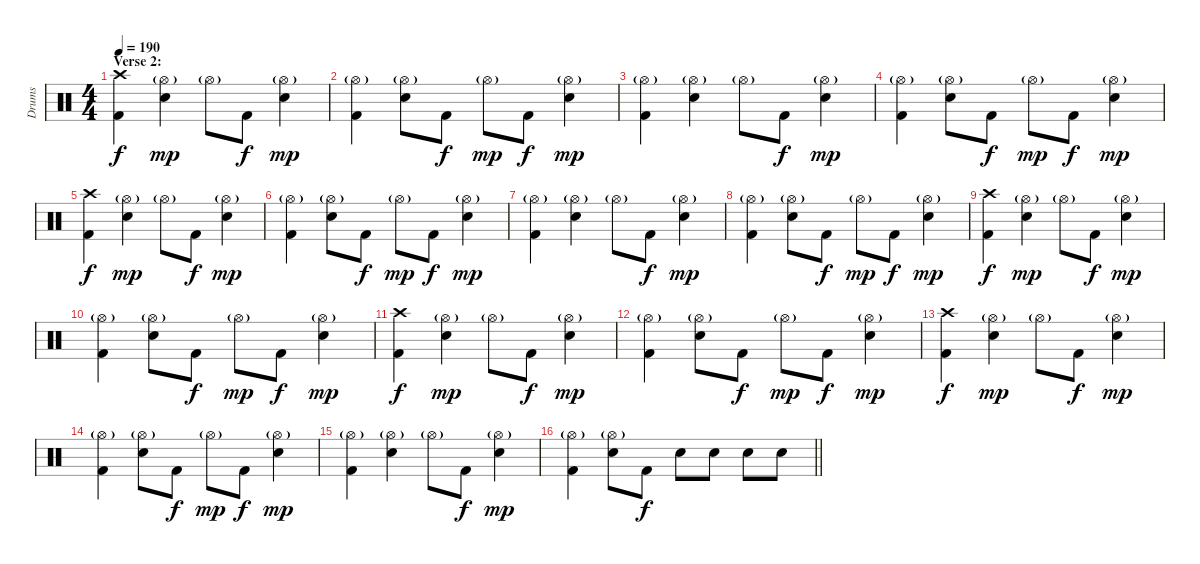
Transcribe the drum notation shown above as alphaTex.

\track ("Drums" "Drums") {instrument percussion}
\staff {score}
\articulation defaults
\ts (4 4)
\section ("" "Verse 2:")
\tempo 190
\clef neutral
\ks c
("Crash high (hit)" "Kick (hit) 2").4{dy f} ("Hi-Hat (open)"{g} "Electric Snare (hit)").4{dy mp} "Hi-Hat (open)"{g}.8 "Kick (hit) 2".8{dy f} ("Hi-Hat (open)"{g} "Electric Snare (hit)").4{dy mp} |
("Hi-Hat (open)"{g} "Kick (hit) 2").4 ("Hi-Hat (open)"{g} "Electric Snare (hit)").8 "Kick (hit) 2".8{dy f} "Hi-Hat (open)"{g}.8{dy mp} "Kick (hit) 2".8{dy f} ("Hi-Hat (open)"{g} "Electric Snare (hit)").4{dy mp} |
("Hi-Hat (open)"{g} "Kick (hit) 2").4 ("Hi-Hat (open)"{g} "Electric Snare (hit)").4 "Hi-Hat (open)"{g}.8 "Kick (hit) 2".8{dy f} ("Hi-Hat (open)"{g} "Electric Snare (hit)").4{dy mp} |
("Hi-Hat (open)"{g} "Kick (hit) 2").4 ("Hi-Hat (open)"{g} "Electric Snare (hit)").8 "Kick (hit) 2".8{dy f} "Hi-Hat (open)"{g}.8{dy mp} "Kick (hit) 2".8{dy f} ("Hi-Hat (open)"{g} "Electric Snare (hit)").4{dy mp} |
("Crash high (hit)" "Kick (hit) 2").4{dy f} ("Hi-Hat (open)"{g} "Electric Snare (hit)").4{dy mp} "Hi-Hat (open)"{g}.8 "Kick (hit) 2".8{dy f} ("Hi-Hat (open)"{g} "Electric Snare (hit)").4{dy mp} |
("Hi-Hat (open)"{g} "Kick (hit) 2").4 ("Hi-Hat (open)"{g} "Electric Snare (hit)").8 "Kick (hit) 2".8{dy f} "Hi-Hat (open)"{g}.8{dy mp} "Kick (hit) 2".8{dy f} ("Hi-Hat (open)"{g} "Electric Snare (hit)").4{dy mp} |
("Hi-Hat (open)"{g} "Kick (hit) 2").4 ("Hi-Hat (open)"{g} "Electric Snare (hit)").4 "Hi-Hat (open)"{g}.8 "Kick (hit) 2".8{dy f} ("Hi-Hat (open)"{g} "Electric Snare (hit)").4{dy mp} |
("Hi-Hat (open)"{g} "Kick (hit) 2").4 ("Hi-Hat (open)"{g} "Electric Snare (hit)").8 "Kick (hit) 2".8{dy f} "Hi-Hat (open)"{g}.8{dy mp} "Kick (hit) 2".8{dy f} ("Hi-Hat (open)"{g} "Electric Snare (hit)").4{dy mp} |
("Crash high (hit)" "Kick (hit) 2").4{dy f} ("Hi-Hat (open)"{g} "Electric Snare (hit)").4{dy mp} "Hi-Hat (open)"{g}.8 "Kick (hit) 2".8{dy f} ("Hi-Hat (open)"{g} "Electric Snare (hit)").4{dy mp} |
("Hi-Hat (open)"{g} "Kick (hit) 2").4 ("Hi-Hat (open)"{g} "Electric Snare (hit)").8 "Kick (hit) 2".8{dy f} "Hi-Hat (open)"{g}.8{dy mp} "Kick (hit) 2".8{dy f} ("Hi-Hat (open)"{g} "Electric Snare (hit)").4{dy mp} |
("Crash high (hit)" "Kick (hit) 2").4{dy f} ("Hi-Hat (open)"{g} "Electric Snare (hit)").4{dy mp} "Hi-Hat (open)"{g}.8 "Kick (hit) 2".8{dy f} ("Hi-Hat (open)"{g} "Electric Snare (hit)").4{dy mp} |
("Hi-Hat (open)"{g} "Kick (hit) 2").4 ("Hi-Hat (open)"{g} "Electric Snare (hit)").8 "Kick (hit) 2".8{dy f} "Hi-Hat (open)"{g}.8{dy mp} "Kick (hit) 2".8{dy f} ("Hi-Hat (open)"{g} "Electric Snare (hit)").4{dy mp} |
("Crash high (hit)" "Kick (hit) 2").4{dy f} ("Hi-Hat (open)"{g} "Electric Snare (hit)").4{dy mp} "Hi-Hat (open)"{g}.8 "Kick (hit) 2".8{dy f} ("Hi-Hat (open)"{g} "Electric Snare (hit)").4{dy mp} |
("Hi-Hat (open)"{g} "Kick (hit) 2").4 ("Hi-Hat (open)"{g} "Electric Snare (hit)").8 "Kick (hit) 2".8{dy f} "Hi-Hat (open)"{g}.8{dy mp} "Kick (hit) 2".8{dy f} ("Hi-Hat (open)"{g} "Electric Snare (hit)").4{dy mp} |
("Hi-Hat (open)"{g} "Kick (hit) 2").4 ("Hi-Hat (open)"{g} "Electric Snare (hit)").4 "Hi-Hat (open)"{g}.8 "Kick (hit) 2".8{dy f} ("Hi-Hat (open)"{g} "Electric Snare (hit)").4{dy mp} |
\barLineRight lightlight
("Hi-Hat (open)"{g} "Kick (hit) 2").4 ("Hi-Hat (open)"{g} "Electric Snare (hit)").8 "Kick (hit) 2".8{dy f} "Electric Snare (hit)".8 "Electric Snare (hit)".8 "Electric Snare (hit)".8 "Electric Snare (hit)".8
